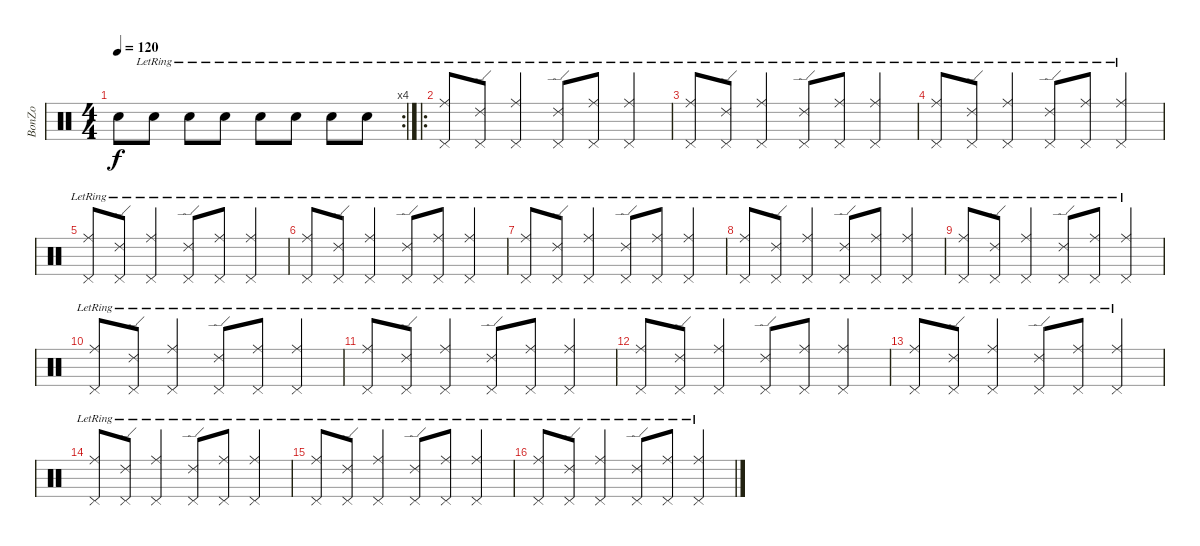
\track ("BonZo" "BonZo") {instrument percussion}
\staff {score}
\articulation defaults
\rc 4
\ts (4 4)
\tempo 120
\clef neutral
\ks c "Electric Snare (hit)"{t}.8{dy f} "Electric Snare (hit)"{lr}.8 "Electric Snare (hit)"{lr}.8 "Electric Snare (hit)"{lr}.8 "Electric Snare (hit)"{lr}.8 "Electric Snare (hit)"{lr}.8 "Electric Snare (hit)"{lr}.8 "Electric Snare (hit)"{lr}.8
|
\ro
("Ride (middle)"{lr} "Pedal Hi-Hat (hit)"{lr}).8 ("Ride (edge) 2"{lr} "Pedal Hi-Hat (hit)"{lr}).8 ("Ride (middle)"{lr} "Pedal Hi-Hat (hit)"{lr}).4 ("Ride (edge) 2"{lr} "Pedal Hi-Hat (hit)"{lr}).8 ("Ride (middle)"{lr} "Pedal Hi-Hat (hit)"{lr}).8 ("Ride (middle)"{lr} "Pedal Hi-Hat (hit)"{lr}).4 |
("Ride (middle)"{lr} "Pedal Hi-Hat (hit)"{lr}).8 ("Ride (edge) 2"{lr} "Pedal Hi-Hat (hit)"{lr}).8 ("Ride (middle)"{lr} "Pedal Hi-Hat (hit)"{lr}).4 ("Ride (edge) 2"{lr} "Pedal Hi-Hat (hit)"{lr}).8 ("Ride (middle)"{lr} "Pedal Hi-Hat (hit)"{lr}).8 ("Ride (middle)"{lr} "Pedal Hi-Hat (hit)"{lr}).4 |
("Ride (middle)"{lr} "Pedal Hi-Hat (hit)"{lr}).8 ("Ride (edge) 2"{lr} "Pedal Hi-Hat (hit)"{lr}).8 ("Ride (middle)"{lr} "Pedal Hi-Hat (hit)"{lr}).4 ("Ride (edge) 2"{lr} "Pedal Hi-Hat (hit)"{lr}).8 ("Ride (middle)"{lr} "Pedal Hi-Hat (hit)"{lr}).8 ("Ride (middle)"{lr} "Pedal Hi-Hat (hit)"{lr}).4 |
("Ride (middle)"{lr} "Pedal Hi-Hat (hit)"{lr}).8 ("Ride (edge) 2"{lr} "Pedal Hi-Hat (hit)"{lr}).8 ("Ride (middle)"{lr} "Pedal Hi-Hat (hit)"{lr}).4 ("Ride (edge) 2"{lr} "Pedal Hi-Hat (hit)"{lr}).8 ("Ride (middle)"{lr} "Pedal Hi-Hat (hit)"{lr}).8 ("Ride (middle)"{lr} "Pedal Hi-Hat (hit)"{lr}).4 |
("Ride (middle)"{lr} "Pedal Hi-Hat (hit)"{lr}).8 ("Ride (edge) 2"{lr} "Pedal Hi-Hat (hit)"{lr}).8 ("Ride (middle)"{lr} "Pedal Hi-Hat (hit)"{lr}).4 ("Ride (edge) 2"{lr} "Pedal Hi-Hat (hit)"{lr}).8 ("Ride (middle)"{lr} "Pedal Hi-Hat (hit)"{lr}).8 ("Ride (middle)"{lr} "Pedal Hi-Hat (hit)"{lr}).4 |
("Ride (middle)"{lr} "Pedal Hi-Hat (hit)"{lr}).8 ("Ride (edge) 2"{lr} "Pedal Hi-Hat (hit)"{lr}).8 ("Ride (middle)"{lr} "Pedal Hi-Hat (hit)"{lr}).4 ("Ride (edge) 2"{lr} "Pedal Hi-Hat (hit)"{lr}).8 ("Ride (middle)"{lr} "Pedal Hi-Hat (hit)"{lr}).8 ("Ride (middle)"{lr} "Pedal Hi-Hat (hit)"{lr}).4 |
("Ride (middle)"{lr} "Pedal Hi-Hat (hit)"{lr}).8 ("Ride (edge) 2"{lr} "Pedal Hi-Hat (hit)"{lr}).8 ("Ride (middle)"{lr} "Pedal Hi-Hat (hit)"{lr}).4 ("Ride (edge) 2"{lr} "Pedal Hi-Hat (hit)"{lr}).8 ("Ride (middle)"{lr} "Pedal Hi-Hat (hit)"{lr}).8 ("Ride (middle)"{lr} "Pedal Hi-Hat (hit)"{lr}).4 |
("Ride (middle)"{lr} "Pedal Hi-Hat (hit)"{lr}).8 ("Ride (edge) 2"{lr} "Pedal Hi-Hat (hit)"{lr}).8 ("Ride (middle)"{lr} "Pedal Hi-Hat (hit)"{lr}).4 ("Ride (edge) 2"{lr} "Pedal Hi-Hat (hit)"{lr}).8 ("Ride (middle)"{lr} "Pedal Hi-Hat (hit)"{lr}).8 ("Ride (middle)"{lr} "Pedal Hi-Hat (hit)"{lr}).4 |
("Ride (middle)"{lr} "Pedal Hi-Hat (hit)"{lr}).8 ("Ride (edge) 2"{lr} "Pedal Hi-Hat (hit)"{lr}).8 ("Ride (middle)"{lr} "Pedal Hi-Hat (hit)"{lr}).4 ("Ride (edge) 2"{lr} "Pedal Hi-Hat (hit)"{lr}).8 ("Ride (middle)"{lr} "Pedal Hi-Hat (hit)"{lr}).8 ("Ride (middle)"{lr} "Pedal Hi-Hat (hit)"{lr}).4 |
("Ride (middle)"{lr} "Pedal Hi-Hat (hit)"{lr}).8 ("Ride (edge) 2"{lr} "Pedal Hi-Hat (hit)"{lr}).8 ("Ride (middle)"{lr} "Pedal Hi-Hat (hit)"{lr}).4 ("Ride (edge) 2"{lr} "Pedal Hi-Hat (hit)"{lr}).8 ("Ride (middle)"{lr} "Pedal Hi-Hat (hit)"{lr}).8 ("Ride (middle)"{lr} "Pedal Hi-Hat (hit)"{lr}).4 |
("Ride (middle)"{lr} "Pedal Hi-Hat (hit)"{lr}).8 ("Ride (edge) 2"{lr} "Pedal Hi-Hat (hit)"{lr}).8 ("Ride (middle)"{lr} "Pedal Hi-Hat (hit)"{lr}).4 ("Ride (edge) 2"{lr} "Pedal Hi-Hat (hit)"{lr}).8 ("Ride (middle)"{lr} "Pedal Hi-Hat (hit)"{lr}).8 ("Ride (middle)"{lr} "Pedal Hi-Hat (hit)"{lr}).4 |
("Ride (middle)"{lr} "Pedal Hi-Hat (hit)"{lr}).8 ("Ride (edge) 2"{lr} "Pedal Hi-Hat (hit)"{lr}).8 ("Ride (middle)"{lr} "Pedal Hi-Hat (hit)"{lr}).4 ("Ride (edge) 2"{lr} "Pedal Hi-Hat (hit)"{lr}).8 ("Ride (middle)"{lr} "Pedal Hi-Hat (hit)"{lr}).8 ("Ride (middle)"{lr} "Pedal Hi-Hat (hit)"{lr}).4 |
("Ride (middle)"{lr} "Pedal Hi-Hat (hit)"{lr}).8 ("Ride (edge) 2"{lr} "Pedal Hi-Hat (hit)"{lr}).8 ("Ride (middle)"{lr} "Pedal Hi-Hat (hit)"{lr}).4 ("Ride (edge) 2"{lr} "Pedal Hi-Hat (hit)"{lr}).8 ("Ride (middle)"{lr} "Pedal Hi-Hat (hit)"{lr}).8 ("Ride (middle)"{lr} "Pedal Hi-Hat (hit)"{lr}).4 |
("Ride (middle)"{lr} "Pedal Hi-Hat (hit)"{lr}).8 ("Ride (edge) 2"{lr} "Pedal Hi-Hat (hit)"{lr}).8 ("Ride (middle)"{lr} "Pedal Hi-Hat (hit)"{lr}).4 ("Ride (edge) 2"{lr} "Pedal Hi-Hat (hit)"{lr}).8 ("Ride (middle)"{lr} "Pedal Hi-Hat (hit)"{lr}).8 ("Ride (middle)"{lr} "Pedal Hi-Hat (hit)"{lr}).4 |
("Ride (middle)"{lr} "Pedal Hi-Hat (hit)"{lr}).8 ("Ride (edge) 2"{lr} "Pedal Hi-Hat (hit)"{lr}).8 ("Ride (middle)"{lr} "Pedal Hi-Hat (hit)"{lr}).4 ("Ride (edge) 2"{lr} "Pedal Hi-Hat (hit)"{lr}).8 ("Ride (middle)"{lr} "Pedal Hi-Hat (hit)"{lr}).8 ("Ride (middle)"{lr} "Pedal Hi-Hat (hit)"{lr}).4
